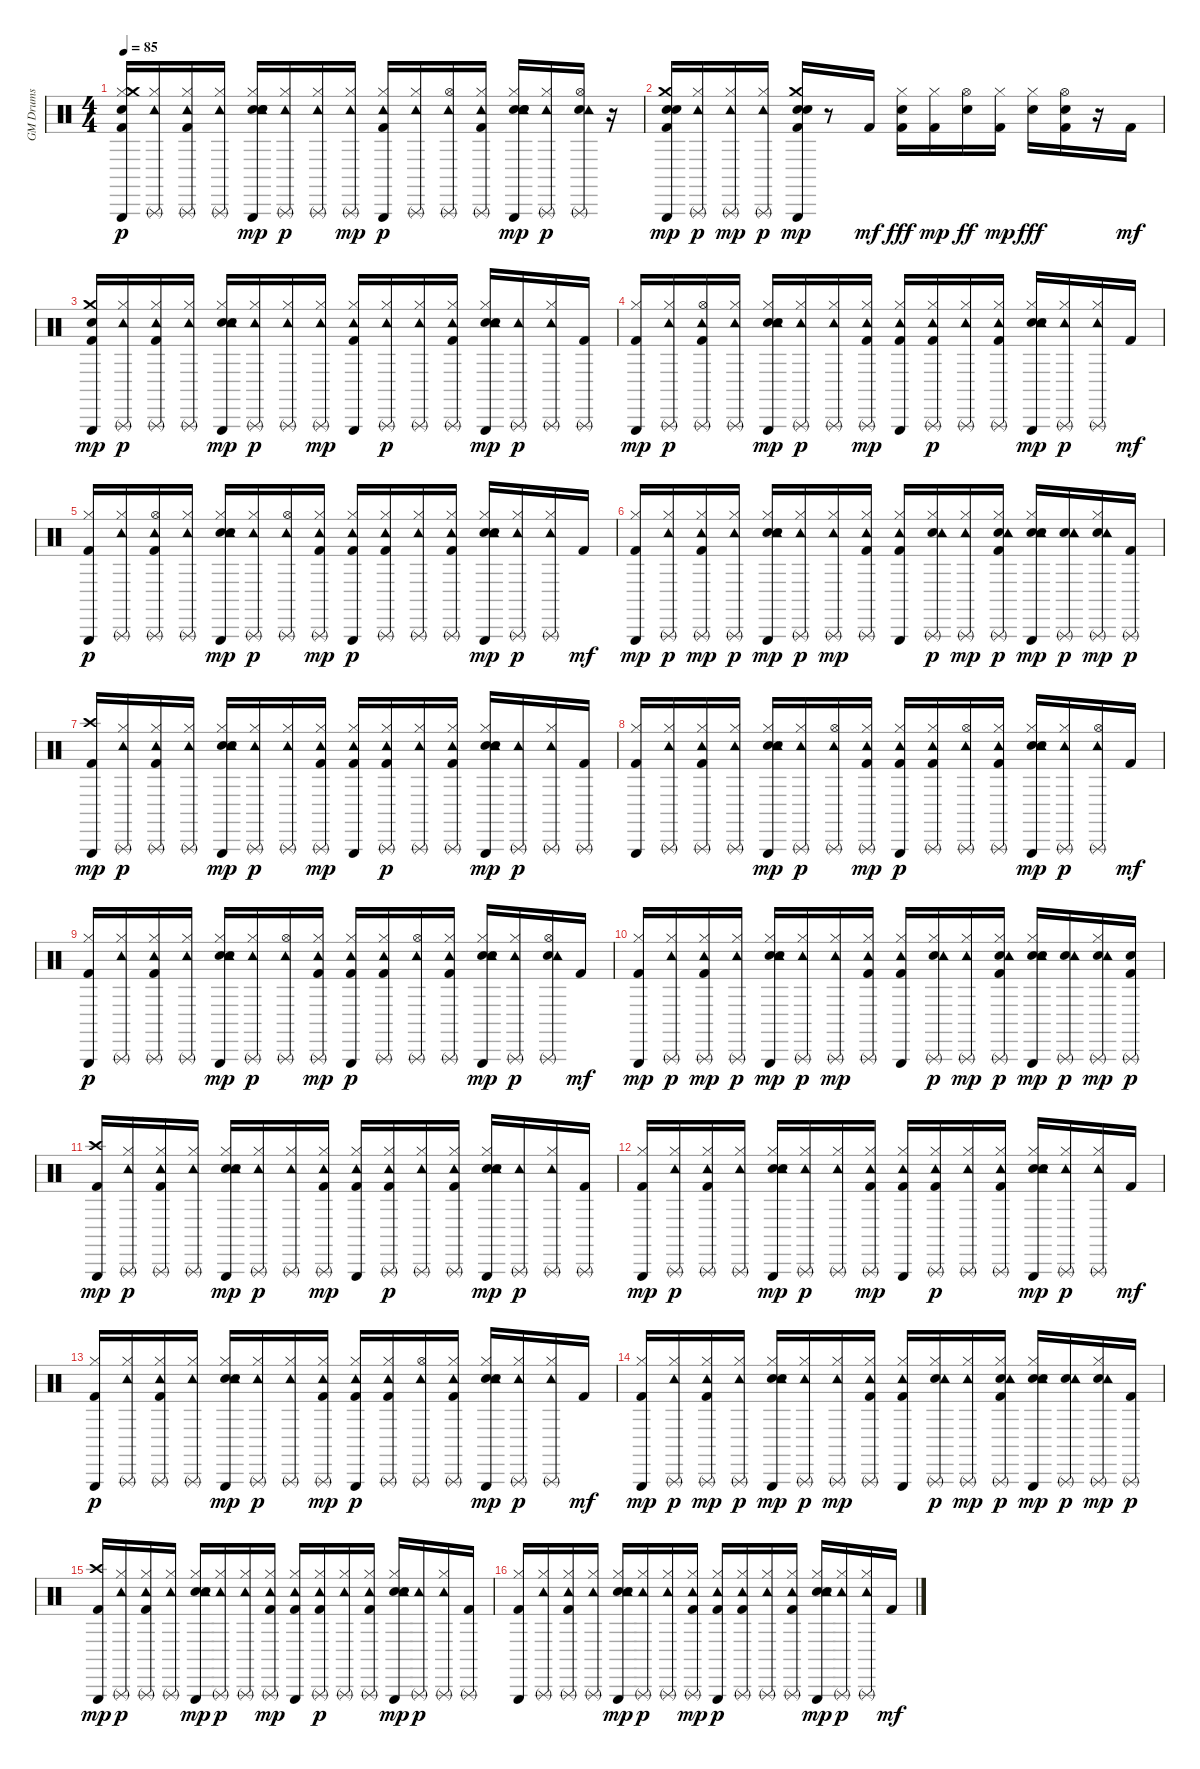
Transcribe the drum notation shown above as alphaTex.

\track ("GM Drums" "GM Drums") {instrument percussion}
\staff {score}
\articulation defaults
\ts (4 4)
\tempo 85
\clef neutral
\ks c
("Kick (hit) 2" "Snare (hit) 2" "Hi-Hat (closed)" "Crash medium (hit)" "Triangle (hit)").16{dy p} ("Hi-Hat (closed)" "Tambourine (hit)" "Triangle (rnute)").16 ("Kick (hit) 2" "Hi-Hat (closed)" "Tambourine (hit)" "Triangle (rnute)").16 ("Hi-Hat (closed)" "Tambourine (hit)" "Triangle (rnute)").16 ("Snare (hit) 2" "Hand Clap (hit)" "Electric Snare (hit)" "Hi-Hat (closed)" "Tambourine (hit)" "Triangle (hit)").16{dy mp} ("Hi-Hat (closed)" "Tambourine (hit)" "Triangle (rnute)").16{dy p} ("Hi-Hat (closed)" "Tambourine (hit)" "Triangle (rnute)").16 ("Hi-Hat (closed)" "Tambourine (hit)" "Triangle (rnute)").16{dy mp} ("Kick (hit) 2" "Hi-Hat (closed)" "Tambourine (hit)" "Triangle (hit)").16{dy p} ("Hi-Hat (closed)" "Tambourine (hit)" "Triangle (rnute)").16 ("Hi-Hat (open)" "Tambourine (hit)" "Triangle (rnute)").16 ("Kick (hit) 2" "Hi-Hat (closed)" "Tambourine (hit)" "Triangle (rnute)").16 ("Snare (hit) 2" "Hand Clap (hit)" "Electric Snare (hit)" "Hi-Hat (closed)" "Tambourine (hit)" "Triangle (hit)").16{dy mp} ("Hi-Hat (closed)" "Tambourine (hit)" "Triangle (rnute)").16{dy p} ("Snare (hit) 2" "Hi-Hat (open)" "Tambourine (hit)" "Triangle (rnute)").16 r.16 |
("Kick (hit) 2" "Hand Clap (hit)" "Electric Snare (hit)" "Crash medium (hit)" "Triangle (hit)").16{dy mp} ("Hi-Hat (closed)" "Tambourine (hit)" "Triangle (rnute)").16{dy p} ("Hi-Hat (closed)" "Tambourine (hit)" "Triangle (rnute)").16{dy mp} ("Hi-Hat (closed)" "Tambourine (hit)" "Triangle (rnute)").16{dy p} ("Kick (hit) 2" "Hand Clap (hit)" "Electric Snare (hit)" "Crash medium (hit)" "Triangle (hit)").16{dy mp} r.8 "Kick (hit) 2".16{dy mf} ("Kick (hit) 2" "Snare (hit) 2" "Hi-Hat (closed)").16{dy fff} ("Kick (hit) 2" "Hi-Hat (closed)").16{dy mp} ("Snare (hit) 2" "Hi-Hat (open)").16{dy ff} ("Kick (hit) 2" "Hi-Hat (closed)").16{dy mp} ("Snare (hit) 2" "Hi-Hat (closed)").16{dy fff} ("Kick (hit) 2" "Snare (hit) 2" "Hi-Hat (open)").16 r.16 "Kick (hit) 2".16{dy mf} |
("Kick (hit) 2" "Snare (hit) 2" "Crash medium (hit)" "Triangle (hit)").16{dy mp} ("Hi-Hat (closed)" "Tambourine (hit)" "Triangle (rnute)").16{dy p} ("Kick (hit) 2" "Hi-Hat (closed)" "Tambourine (hit)" "Triangle (rnute)").16 ("Hi-Hat (closed)" "Tambourine (hit)" "Triangle (rnute)").16 ("Snare (hit) 2" "Hand Clap (hit)" "Hi-Hat (closed)" "Tambourine (hit)" "Triangle (hit)").16{dy mp} ("Hi-Hat (closed)" "Tambourine (hit)" "Triangle (rnute)").16{dy p} ("Hi-Hat (closed)" "Tambourine (hit)" "Triangle (rnute)").16 ("Hi-Hat (closed)" "Tambourine (hit)" "Triangle (rnute)").16{dy mp} ("Kick (hit) 2" "Hi-Hat (closed)" "Tambourine (hit)" "Triangle (hit)").16 ("Hi-Hat (closed)" "Tambourine (hit)" "Triangle (rnute)").16{dy p} ("Hi-Hat (closed)" "Tambourine (hit)" "Triangle (rnute)").16 ("Kick (hit) 2" "Hi-Hat (closed)" "Tambourine (hit)" "Triangle (rnute)").16 ("Snare (hit) 2" "Hand Clap (hit)" "Hi-Hat (closed)" "Tambourine (hit)" "Triangle (hit)").16{dy mp} ("Tambourine (hit)" "Triangle (rnute)").16{dy p} ("Hi-Hat (closed)" "Tambourine (hit)" "Triangle (rnute)").16 ("Kick (hit) 2" "Triangle (rnute)").16 |
("Kick (hit) 2" "Hi-Hat (closed)" "Triangle (hit)").16{dy mp} ("Hi-Hat (closed)" "Tambourine (hit)" "Triangle (rnute)").16{dy p} ("Kick (hit) 2" "Hi-Hat (open)" "Tambourine (hit)" "Triangle (rnute)").16 ("Hi-Hat (closed)" "Tambourine (hit)" "Triangle (rnute)").16 ("Snare (hit) 2" "Hand Clap (hit)" "Hi-Hat (closed)" "Tambourine (hit)" "Triangle (hit)").16{dy mp} ("Hi-Hat (closed)" "Tambourine (hit)" "Triangle (rnute)").16{dy p} ("Hi-Hat (closed)" "Tambourine (hit)" "Triangle (rnute)").16 ("Kick (hit) 2" "Hi-Hat (closed)" "Tambourine (hit)" "Triangle (rnute)").16{dy mp} ("Kick (hit) 2" "Hi-Hat (closed)" "Tambourine (hit)" "Triangle (hit)").16 ("Kick (hit) 2" "Hi-Hat (closed)" "Tambourine (hit)" "Triangle (rnute)").16{dy p} ("Hi-Hat (closed)" "Tambourine (hit)" "Triangle (rnute)").16 ("Kick (hit) 2" "Hi-Hat (closed)" "Tambourine (hit)" "Triangle (rnute)").16 ("Snare (hit) 2" "Hand Clap (hit)" "Hi-Hat (closed)" "Tambourine (hit)" "Triangle (hit)").16{dy mp} ("Hi-Hat (closed)" "Tambourine (hit)" "Triangle (rnute)").16{dy p} ("Hi-Hat (closed)" "Tambourine (hit)" "Triangle (rnute)").16 "Kick (hit) 2".16{dy mf} |
("Kick (hit) 2" "Hi-Hat (closed)" "Triangle (hit)").16{dy p} ("Hi-Hat (closed)" "Tambourine (hit)" "Triangle (rnute)").16 ("Kick (hit) 2" "Hi-Hat (open)" "Tambourine (hit)" "Triangle (rnute)").16 ("Hi-Hat (closed)" "Tambourine (hit)" "Triangle (rnute)").16 ("Snare (hit) 2" "Hand Clap (hit)" "Hi-Hat (closed)" "Tambourine (hit)" "Triangle (hit)").16{dy mp} ("Hi-Hat (closed)" "Tambourine (hit)" "Triangle (rnute)").16{dy p} ("Hi-Hat (open)" "Tambourine (hit)" "Triangle (rnute)").16 ("Kick (hit) 2" "Hi-Hat (closed)" "Tambourine (hit)" "Triangle (rnute)").16{dy mp} ("Kick (hit) 2" "Hi-Hat (closed)" "Tambourine (hit)" "Triangle (hit)").16{dy p} ("Kick (hit) 2" "Hi-Hat (closed)" "Tambourine (hit)" "Triangle (rnute)").16 ("Hi-Hat (closed)" "Tambourine (hit)" "Triangle (rnute)").16 ("Kick (hit) 2" "Hi-Hat (closed)" "Tambourine (hit)" "Triangle (rnute)").16 ("Snare (hit) 2" "Hand Clap (hit)" "Hi-Hat (closed)" "Tambourine (hit)" "Triangle (hit)").16{dy mp} ("Hi-Hat (closed)" "Tambourine (hit)" "Triangle (rnute)").16{dy p} ("Hi-Hat (closed)" "Tambourine (hit)" "Triangle (rnute)").16 "Kick (hit) 2".16{dy mf} |
("Kick (hit) 2" "Hi-Hat (closed)" "Triangle (hit)").16{dy mp} ("Hi-Hat (closed)" "Tambourine (hit)" "Triangle (rnute)").16{dy p} ("Kick (hit) 2" "Hi-Hat (closed)" "Tambourine (hit)" "Triangle (rnute)").16{dy mp} ("Hi-Hat (closed)" "Tambourine (hit)" "Triangle (rnute)").16{dy p} ("Snare (hit) 2" "Hand Clap (hit)" "Hi-Hat (closed)" "Tambourine (hit)" "Triangle (hit)").16{dy mp} ("Hi-Hat (closed)" "Tambourine (hit)" "Triangle (rnute)").16{dy p} ("Hi-Hat (closed)" "Tambourine (hit)" "Triangle (rnute)").16{dy mp} ("Kick (hit) 2" "Hi-Hat (closed)" "Tambourine (hit)" "Triangle (rnute)").16 ("Kick (hit) 2" "Hi-Hat (closed)" "Tambourine (hit)" "Triangle (hit)").16 ("Snare (hit) 2" "Hi-Hat (closed)" "Tambourine (hit)" "Triangle (rnute)").16{dy p} ("Hi-Hat (closed)" "Tambourine (hit)" "Triangle (rnute)").16{dy mp} ("Kick (hit) 2" "Snare (hit) 2" "Hi-Hat (closed)" "Tambourine (hit)" "Triangle (rnute)").16{dy p} ("Snare (hit) 2" "Hand Clap (hit)" "Hi-Hat (closed)" "Tambourine (hit)" "Triangle (hit)").16{dy mp} ("Snare (hit) 2" "Tambourine (hit)" "Triangle (rnute)").16{dy p} ("Snare (hit) 2" "Hi-Hat (closed)" "Tambourine (hit)" "Triangle (rnute)").16{dy mp} ("Kick (hit) 2" "Triangle (rnute)").16{dy p} |
("Kick (hit) 2" "Crash high (hit)" "Triangle (hit)").16{dy mp} ("Hi-Hat (closed)" "Tambourine (hit)" "Triangle (rnute)").16{dy p} ("Kick (hit) 2" "Hi-Hat (closed)" "Tambourine (hit)" "Triangle (rnute)").16 ("Hi-Hat (closed)" "Tambourine (hit)" "Triangle (rnute)").16 ("Snare (hit) 2" "Hand Clap (hit)" "Hi-Hat (closed)" "Tambourine (hit)" "Triangle (hit)").16{dy mp} ("Hi-Hat (closed)" "Tambourine (hit)" "Triangle (rnute)").16{dy p} ("Hi-Hat (closed)" "Tambourine (hit)" "Triangle (rnute)").16 ("Kick (hit) 2" "Hi-Hat (closed)" "Tambourine (hit)" "Triangle (rnute)").16{dy mp} ("Kick (hit) 2" "Hi-Hat (closed)" "Tambourine (hit)" "Triangle (hit)").16 ("Kick (hit) 2" "Hi-Hat (closed)" "Tambourine (hit)" "Triangle (rnute)").16{dy p} ("Hi-Hat (closed)" "Tambourine (hit)" "Triangle (rnute)").16 ("Kick (hit) 2" "Hi-Hat (closed)" "Tambourine (hit)" "Triangle (rnute)").16 ("Snare (hit) 2" "Hand Clap (hit)" "Hi-Hat (closed)" "Tambourine (hit)" "Triangle (hit)").16{dy mp} ("Tambourine (hit)" "Triangle (rnute)").16{dy p} ("Hi-Hat (closed)" "Tambourine (hit)" "Triangle (rnute)").16 ("Kick (hit) 2" "Triangle (rnute)").16 |
("Kick (hit) 2" "Hi-Hat (closed)" "Triangle (hit)").16 ("Hi-Hat (closed)" "Tambourine (hit)" "Triangle (rnute)").16 ("Kick (hit) 2" "Hi-Hat (closed)" "Tambourine (hit)" "Triangle (rnute)").16 ("Hi-Hat (closed)" "Tambourine (hit)" "Triangle (rnute)").16 ("Snare (hit) 2" "Hand Clap (hit)" "Hi-Hat (closed)" "Tambourine (hit)" "Triangle (hit)").16{dy mp} ("Hi-Hat (closed)" "Tambourine (hit)" "Triangle (rnute)").16{dy p} ("Hi-Hat (open)" "Tambourine (hit)" "Triangle (rnute)").16 ("Kick (hit) 2" "Hi-Hat (closed)" "Tambourine (hit)" "Triangle (rnute)").16{dy mp} ("Kick (hit) 2" "Hi-Hat (closed)" "Tambourine (hit)" "Triangle (hit)").16{dy p} ("Kick (hit) 2" "Hi-Hat (closed)" "Tambourine (hit)" "Triangle (rnute)").16 ("Hi-Hat (open)" "Tambourine (hit)" "Triangle (rnute)").16 ("Kick (hit) 2" "Hi-Hat (closed)" "Tambourine (hit)" "Triangle (rnute)").16 ("Snare (hit) 2" "Hand Clap (hit)" "Hi-Hat (closed)" "Tambourine (hit)" "Triangle (hit)").16{dy mp} ("Hi-Hat (closed)" "Tambourine (hit)" "Triangle (rnute)").16{dy p} ("Hi-Hat (open)" "Tambourine (hit)" "Triangle (rnute)").16 "Kick (hit) 2".16{dy mf} |
("Kick (hit) 2" "Hi-Hat (closed)" "Triangle (hit)").16{dy p} ("Hi-Hat (closed)" "Tambourine (hit)" "Triangle (rnute)").16 ("Kick (hit) 2" "Hi-Hat (closed)" "Tambourine (hit)" "Triangle (rnute)").16 ("Hi-Hat (closed)" "Tambourine (hit)" "Triangle (rnute)").16 ("Snare (hit) 2" "Hand Clap (hit)" "Hi-Hat (closed)" "Tambourine (hit)" "Triangle (hit)").16{dy mp} ("Hi-Hat (closed)" "Tambourine (hit)" "Triangle (rnute)").16{dy p} ("Hi-Hat (open)" "Tambourine (hit)" "Triangle (rnute)").16 ("Kick (hit) 2" "Hi-Hat (closed)" "Tambourine (hit)" "Triangle (rnute)").16{dy mp} ("Kick (hit) 2" "Hi-Hat (closed)" "Tambourine (hit)" "Triangle (hit)").16{dy p} ("Kick (hit) 2" "Hi-Hat (closed)" "Tambourine (hit)" "Triangle (rnute)").16 ("Hi-Hat (open)" "Tambourine (hit)" "Triangle (rnute)").16 ("Kick (hit) 2" "Hi-Hat (closed)" "Tambourine (hit)" "Triangle (rnute)").16 ("Snare (hit) 2" "Hand Clap (hit)" "Hi-Hat (closed)" "Tambourine (hit)" "Triangle (hit)").16{dy mp} ("Hi-Hat (closed)" "Tambourine (hit)" "Triangle (rnute)").16{dy p} ("Snare (hit) 2" "Hi-Hat (open)" "Tambourine (hit)" "Triangle (rnute)").16 "Kick (hit) 2".16{dy mf} |
("Kick (hit) 2" "Hi-Hat (closed)" "Triangle (hit)").16{dy mp} ("Hi-Hat (closed)" "Tambourine (hit)" "Triangle (rnute)").16{dy p} ("Kick (hit) 2" "Hi-Hat (closed)" "Tambourine (hit)" "Triangle (rnute)").16{dy mp} ("Hi-Hat (closed)" "Tambourine (hit)" "Triangle (rnute)").16{dy p} ("Snare (hit) 2" "Hand Clap (hit)" "Hi-Hat (closed)" "Tambourine (hit)" "Triangle (hit)").16{dy mp} ("Hi-Hat (closed)" "Tambourine (hit)" "Triangle (rnute)").16{dy p} ("Hi-Hat (closed)" "Tambourine (hit)" "Triangle (rnute)").16{dy mp} ("Kick (hit) 2" "Hi-Hat (closed)" "Tambourine (hit)" "Triangle (rnute)").16 ("Kick (hit) 2" "Hi-Hat (closed)" "Tambourine (hit)" "Triangle (hit)").16 ("Snare (hit) 2" "Hi-Hat (closed)" "Tambourine (hit)" "Triangle (rnute)").16{dy p} ("Hi-Hat (closed)" "Tambourine (hit)" "Triangle (rnute)").16{dy mp} ("Kick (hit) 2" "Snare (hit) 2" "Hi-Hat (closed)" "Tambourine (hit)" "Triangle (rnute)").16{dy p} ("Snare (hit) 2" "Hand Clap (hit)" "Hi-Hat (closed)" "Tambourine (hit)" "Triangle (hit)").16{dy mp} ("Snare (hit) 2" "Tambourine (hit)" "Triangle (rnute)").16{dy p} ("Snare (hit) 2" "Hi-Hat (closed)" "Tambourine (hit)" "Triangle (rnute)").16{dy mp} ("Kick (hit) 2" "Snare (hit) 2" "Triangle (rnute)").16{dy p} |
("Kick (hit) 2" "Crash high (hit)" "Triangle (hit)").16{dy mp} ("Hi-Hat (closed)" "Tambourine (hit)" "Triangle (rnute)").16{dy p} ("Kick (hit) 2" "Hi-Hat (closed)" "Tambourine (hit)" "Triangle (rnute)").16 ("Hi-Hat (closed)" "Tambourine (hit)" "Triangle (rnute)").16 ("Snare (hit) 2" "Hand Clap (hit)" "Hi-Hat (closed)" "Tambourine (hit)" "Triangle (hit)").16{dy mp} ("Hi-Hat (closed)" "Tambourine (hit)" "Triangle (rnute)").16{dy p} ("Hi-Hat (closed)" "Tambourine (hit)" "Triangle (rnute)").16 ("Kick (hit) 2" "Hi-Hat (closed)" "Tambourine (hit)" "Triangle (rnute)").16{dy mp} ("Kick (hit) 2" "Hi-Hat (closed)" "Tambourine (hit)" "Triangle (hit)").16 ("Kick (hit) 2" "Hi-Hat (closed)" "Tambourine (hit)" "Triangle (rnute)").16{dy p} ("Hi-Hat (closed)" "Tambourine (hit)" "Triangle (rnute)").16 ("Kick (hit) 2" "Hi-Hat (closed)" "Tambourine (hit)" "Triangle (rnute)").16 ("Snare (hit) 2" "Hand Clap (hit)" "Hi-Hat (closed)" "Tambourine (hit)" "Triangle (hit)").16{dy mp} ("Tambourine (hit)" "Triangle (rnute)").16{dy p} ("Hi-Hat (closed)" "Tambourine (hit)" "Triangle (rnute)").16 ("Kick (hit) 2" "Triangle (rnute)").16 |
("Kick (hit) 2" "Hi-Hat (closed)" "Triangle (hit)").16{dy mp} ("Hi-Hat (closed)" "Tambourine (hit)" "Triangle (rnute)").16{dy p} ("Kick (hit) 2" "Hi-Hat (closed)" "Tambourine (hit)" "Triangle (rnute)").16 ("Hi-Hat (closed)" "Tambourine (hit)" "Triangle (rnute)").16 ("Snare (hit) 2" "Hand Clap (hit)" "Hi-Hat (closed)" "Tambourine (hit)" "Triangle (hit)").16{dy mp} ("Hi-Hat (closed)" "Tambourine (hit)" "Triangle (rnute)").16{dy p} ("Hi-Hat (closed)" "Tambourine (hit)" "Triangle (rnute)").16 ("Kick (hit) 2" "Hi-Hat (closed)" "Tambourine (hit)" "Triangle (rnute)").16{dy mp} ("Kick (hit) 2" "Hi-Hat (closed)" "Tambourine (hit)" "Triangle (hit)").16 ("Kick (hit) 2" "Hi-Hat (closed)" "Tambourine (hit)" "Triangle (rnute)").16{dy p} ("Hi-Hat (closed)" "Tambourine (hit)" "Triangle (rnute)").16 ("Kick (hit) 2" "Hi-Hat (closed)" "Tambourine (hit)" "Triangle (rnute)").16 ("Snare (hit) 2" "Hand Clap (hit)" "Hi-Hat (closed)" "Tambourine (hit)" "Triangle (hit)").16{dy mp} ("Hi-Hat (closed)" "Tambourine (hit)" "Triangle (rnute)").16{dy p} ("Hi-Hat (closed)" "Tambourine (hit)" "Triangle (rnute)").16 "Kick (hit) 2".16{dy mf} |
("Kick (hit) 2" "Hi-Hat (closed)" "Triangle (hit)").16{dy p} ("Hi-Hat (closed)" "Tambourine (hit)" "Triangle (rnute)").16 ("Kick (hit) 2" "Hi-Hat (closed)" "Tambourine (hit)" "Triangle (rnute)").16 ("Hi-Hat (closed)" "Tambourine (hit)" "Triangle (rnute)").16 ("Snare (hit) 2" "Hand Clap (hit)" "Hi-Hat (closed)" "Tambourine (hit)" "Triangle (hit)").16{dy mp} ("Hi-Hat (closed)" "Tambourine (hit)" "Triangle (rnute)").16{dy p} ("Hi-Hat (closed)" "Tambourine (hit)" "Triangle (rnute)").16 ("Kick (hit) 2" "Hi-Hat (closed)" "Tambourine (hit)" "Triangle (rnute)").16{dy mp} ("Kick (hit) 2" "Hi-Hat (closed)" "Tambourine (hit)" "Triangle (hit)").16{dy p} ("Kick (hit) 2" "Hi-Hat (closed)" "Tambourine (hit)" "Triangle (rnute)").16 ("Hi-Hat (open)" "Tambourine (hit)" "Triangle (rnute)").16 ("Kick (hit) 2" "Hi-Hat (closed)" "Tambourine (hit)" "Triangle (rnute)").16 ("Snare (hit) 2" "Hand Clap (hit)" "Hi-Hat (closed)" "Tambourine (hit)" "Triangle (hit)").16{dy mp} ("Hi-Hat (closed)" "Tambourine (hit)" "Triangle (rnute)").16{dy p} ("Hi-Hat (closed)" "Tambourine (hit)" "Triangle (rnute)").16 "Kick (hit) 2".16{dy mf} |
("Kick (hit) 2" "Hi-Hat (closed)" "Triangle (hit)").16{dy mp} ("Hi-Hat (closed)" "Tambourine (hit)" "Triangle (rnute)").16{dy p} ("Kick (hit) 2" "Hi-Hat (closed)" "Tambourine (hit)" "Triangle (rnute)").16{dy mp} ("Hi-Hat (closed)" "Tambourine (hit)" "Triangle (rnute)").16{dy p} ("Snare (hit) 2" "Hand Clap (hit)" "Hi-Hat (closed)" "Tambourine (hit)" "Triangle (hit)").16{dy mp} ("Hi-Hat (closed)" "Tambourine (hit)" "Triangle (rnute)").16{dy p} ("Hi-Hat (closed)" "Tambourine (hit)" "Triangle (rnute)").16{dy mp} ("Kick (hit) 2" "Hi-Hat (closed)" "Tambourine (hit)" "Triangle (rnute)").16 ("Kick (hit) 2" "Hi-Hat (closed)" "Tambourine (hit)" "Triangle (hit)").16 ("Snare (hit) 2" "Hi-Hat (closed)" "Tambourine (hit)" "Triangle (rnute)").16{dy p} ("Hi-Hat (closed)" "Tambourine (hit)" "Triangle (rnute)").16{dy mp} ("Kick (hit) 2" "Snare (hit) 2" "Hi-Hat (closed)" "Tambourine (hit)" "Triangle (rnute)").16{dy p} ("Snare (hit) 2" "Hand Clap (hit)" "Hi-Hat (closed)" "Tambourine (hit)" "Triangle (hit)").16{dy mp} ("Snare (hit) 2" "Tambourine (hit)" "Triangle (rnute)").16{dy p} ("Snare (hit) 2" "Hi-Hat (closed)" "Tambourine (hit)" "Triangle (rnute)").16{dy mp} ("Kick (hit) 2" "Triangle (rnute)").16{dy p} |
("Kick (hit) 2" "Crash high (hit)" "Triangle (hit)").16{dy mp} ("Hi-Hat (closed)" "Tambourine (hit)" "Triangle (rnute)").16{dy p} ("Kick (hit) 2" "Hi-Hat (closed)" "Tambourine (hit)" "Triangle (rnute)").16 ("Hi-Hat (closed)" "Tambourine (hit)" "Triangle (rnute)").16 ("Snare (hit) 2" "Hand Clap (hit)" "Hi-Hat (closed)" "Tambourine (hit)" "Triangle (hit)").16{dy mp} ("Hi-Hat (closed)" "Tambourine (hit)" "Triangle (rnute)").16{dy p} ("Hi-Hat (closed)" "Tambourine (hit)" "Triangle (rnute)").16 ("Kick (hit) 2" "Hi-Hat (closed)" "Tambourine (hit)" "Triangle (rnute)").16{dy mp} ("Kick (hit) 2" "Hi-Hat (closed)" "Tambourine (hit)" "Triangle (hit)").16 ("Kick (hit) 2" "Hi-Hat (closed)" "Tambourine (hit)" "Triangle (rnute)").16{dy p} ("Hi-Hat (closed)" "Tambourine (hit)" "Triangle (rnute)").16 ("Kick (hit) 2" "Hi-Hat (closed)" "Tambourine (hit)" "Triangle (rnute)").16 ("Snare (hit) 2" "Hand Clap (hit)" "Hi-Hat (closed)" "Tambourine (hit)" "Triangle (hit)").16{dy mp} ("Tambourine (hit)" "Triangle (rnute)").16{dy p} ("Hi-Hat (closed)" "Tambourine (hit)" "Triangle (rnute)").16 ("Kick (hit) 2" "Triangle (rnute)").16 |
("Kick (hit) 2" "Hi-Hat (closed)" "Triangle (hit)").16 ("Hi-Hat (closed)" "Tambourine (hit)" "Triangle (rnute)").16 ("Kick (hit) 2" "Hi-Hat (closed)" "Tambourine (hit)" "Triangle (rnute)").16 ("Hi-Hat (closed)" "Tambourine (hit)" "Triangle (rnute)").16 ("Snare (hit) 2" "Hand Clap (hit)" "Hi-Hat (closed)" "Tambourine (hit)" "Triangle (hit)").16{dy mp} ("Hi-Hat (closed)" "Tambourine (hit)" "Triangle (rnute)").16{dy p} ("Hi-Hat (closed)" "Tambourine (hit)" "Triangle (rnute)").16 ("Kick (hit) 2" "Hi-Hat (closed)" "Tambourine (hit)" "Triangle (rnute)").16{dy mp} ("Kick (hit) 2" "Hi-Hat (closed)" "Tambourine (hit)" "Triangle (hit)").16{dy p} ("Kick (hit) 2" "Hi-Hat (closed)" "Tambourine (hit)" "Triangle (rnute)").16 ("Hi-Hat (closed)" "Tambourine (hit)" "Triangle (rnute)").16 ("Kick (hit) 2" "Hi-Hat (closed)" "Tambourine (hit)" "Triangle (rnute)").16 ("Snare (hit) 2" "Hand Clap (hit)" "Hi-Hat (closed)" "Tambourine (hit)" "Triangle (hit)").16{dy mp} ("Hi-Hat (closed)" "Tambourine (hit)" "Triangle (rnute)").16{dy p} ("Hi-Hat (closed)" "Tambourine (hit)" "Triangle (rnute)").16 "Kick (hit) 2".16{dy mf}
